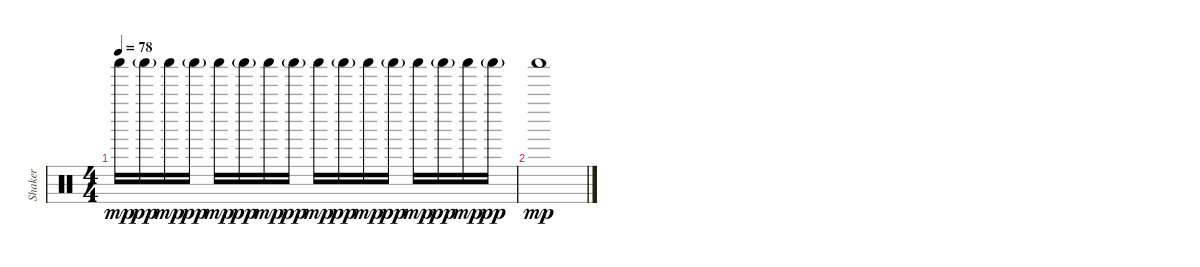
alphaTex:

\track ("Shaker" "Shaker") {instrument percussion}
\staff {score}
\articulation defaults
\ts (4 4)
\tempo 78
\clef neutral
\ks c "Shaker (hit)".16{dy mp} "Shaker (hit)"{g}.16{dy pp} "Shaker (hit)".16{dy mp} "Shaker (hit)"{g}.16{dy pp} "Shaker (hit)".16{dy mp} "Shaker (hit)"{g}.16{dy pp} "Shaker (hit)".16{dy mp} "Shaker (hit)"{g}.16{dy pp} "Shaker (hit)".16{dy mp} "Shaker (hit)"{g}.16{dy pp} "Shaker (hit)".16{dy mp} "Shaker (hit)"{g}.16{dy pp} "Shaker (hit)".16{dy mp} "Shaker (hit)"{g}.16{dy pp} "Shaker (hit)".16{dy mp} "Shaker (hit)"{g}.16{dy pp}
|
"Shaker (hit)".1{dy mp}
